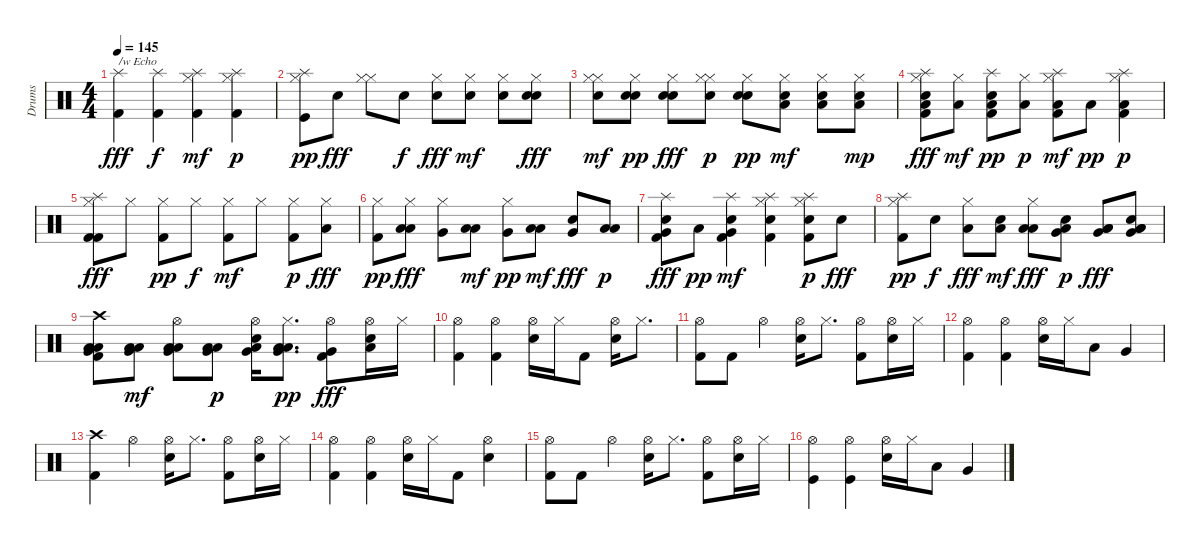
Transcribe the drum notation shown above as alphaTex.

\track ("Drums" "Drums") {instrument percussion}
\staff {score}
\articulation defaults
\ts (4 4)
\tempo 145
\clef neutral
\ks c
("Splash (hit)" "Kick (hit) 2").4{txt "/w Echo" dy fff} ("Splash (hit)" "Kick (hit) 2").4{dy f} ("Hi-Hat (closed)" "Splash (hit)" "Kick (hit) 2").4{dy mf} ("Hi-Hat (closed)" "Splash (hit)" "Kick (hit) 2").4{dy p} |
("Hi-Hat (closed)" "Splash (hit)" "Kick (hit)").8{dy pp} "Snare (hit) 2".8{dy fff} ("Hi-Hat (closed)" "Hi-Hat (closed)").8 "Snare (hit) 2".8{dy f} ("Hi-Hat (closed)" "Snare (hit) 2").8{dy fff} ("Hi-Hat (closed)" "Snare (hit) 2").8{dy mf} ("Hi-Hat (closed)" "Snare (hit) 2").8 ("Hi-Hat (closed)" "Snare (hit) 2" "Snare (hit) 2").8{dy fff} |
("Hi-Hat (closed)" "Hi-Hat (closed)" "Snare (hit) 2").8{dy mf} ("Hi-Hat (closed)" "Snare (hit) 2" "Snare (hit) 2").8{dy pp} ("Hi-Hat (closed)" "Snare (hit) 2" "Snare (hit) 2").8{dy fff} ("Hi-Hat (closed)" "Hi-Hat (closed)" "Snare (hit) 2").8{dy p} ("Hi-Hat (closed)" "Snare (hit) 2" "Snare (hit) 2").8{dy pp} ("Hi-Hat (closed)" "Low Tom (hit)" "Snare (hit) 2").8{dy mf} ("Hi-Hat (closed)" "Low Tom (hit)" "Snare (hit) 2").8 ("Hi-Hat (closed)" "Low Tom (hit)" "Snare (hit) 2").8{dy mp} |
("Hi-Hat (closed)" "Splash (hit)" "Low Tom (hit)" "Snare (hit) 2" "Kick (hit) 2").8{dy fff} ("Hi-Hat (closed)" "Low Tom (hit)").8{dy mf} ("Splash (hit)" "Low Tom (hit)" "Snare (hit) 2" "Kick (hit) 2").8{dy pp} ("Hi-Hat (closed)" "Low Tom (hit)").8{dy p} ("Hi-Hat (closed)" "Splash (hit)" "Low Tom (hit)" "Kick (hit) 2").8{dy mf} "Low Tom (hit)".8{dy pp} ("Hi-Hat (closed)" "Splash (hit)" "Low Tom (hit)" "Kick (hit) 2").4{dy p} |
("Hi-Hat (closed)" "Splash (hit)" "Kick (hit) 2" "Kick (hit) 2").8{dy fff} "Hi-Hat (closed)".8 ("Hi-Hat (closed)" "Kick (hit) 2").8{dy pp} "Hi-Hat (closed)".8{dy f} ("Hi-Hat (closed)" "Kick (hit) 2").8{dy mf} "Hi-Hat (closed)".8 ("Hi-Hat (closed)" "Kick (hit) 2").8{dy p} ("Hi-Hat (closed)" "Low Tom (hit)").8{dy fff} |
("Hi-Hat (closed)" "Kick (hit) 2").8{dy pp} ("Hi-Hat (closed)" "Low Tom (hit)" "Low Tom (hit)").8{dy fff} ("Hi-Hat (closed)" "Very Low Tom (hit)").8 ("Low Tom (hit)" "Low Tom (hit)").8{dy mf} ("Hi-Hat (closed)" "Very Low Tom (hit)").8{dy pp} ("Low Tom (hit)" "Low Tom (hit)").8{dy mf} ("Very Low Tom (hit)" "Snare (hit) 2").8{dy fff} ("Low Tom (hit)" "Low Tom (hit)").8{dy p} |
("Splash (hit)" "Very Low Tom (hit)" "Snare (hit) 2" "Kick (hit) 2").8{dy fff} "Low Tom (hit)".8{dy pp} ("Splash (hit)" "Very Low Tom (hit)" "Snare (hit) 2" "Kick (hit) 2").4{dy mf} ("Hi-Hat (closed)" "Splash (hit)" "Snare (hit) 2" "Kick (hit) 2").4 ("Hi-Hat (closed)" "Splash (hit)" "Snare (hit) 2" "Kick (hit) 2").8{dy p} "Snare (hit) 2".8{dy fff} |
("Hi-Hat (closed)" "Splash (hit)" "Kick (hit) 2").8{dy pp} "Snare (hit) 2".8{dy f} ("Hi-Hat (closed)" "Low Tom (hit)").8{dy fff} ("Low Tom (hit)" "Snare (hit) 2").8{dy mf} ("Hi-Hat (closed)" "Low Tom (hit)" "Low Tom (hit)").8{dy fff} ("Low Tom (hit)" "Very Low Tom (hit)" "Snare (hit) 2").8{dy p} ("Low Tom (hit)" "Low Tom (hit)" "Very Low Tom (hit)").8{dy fff} ("Low Tom (hit)" "Very Low Tom (hit)" "Snare (hit) 2" "Low Floor Tom (hit)").8 |
("Crash high (hit)" "Low Tom (hit)" "Low Tom (hit)" "Very Low Tom (hit)" "Kick (hit) 2").8 ("Low Floor Tom (hit)" "Low Tom (hit)" "Very Low Tom (hit)").8{dy mf} ("Hi-Hat (open)" "Low Tom (hit)" "Low Tom (hit)" "Very Low Tom (hit)").8 ("Low Floor Tom (hit)" "Low Tom (hit)" "Very Low Tom (hit)").8{dy p} ("Hi-Hat (open)" "Low Tom (hit)" "Snare (hit) 2" "Very Low Tom (hit)").16 ("Hi-Hat (closed)" "Low Floor Tom (hit)" "Low Tom (hit)" "Very Low Tom (hit)").8{d dy pp} ("Hi-Hat (open)" "Very Low Tom (hit)" "Kick (hit) 2").8{dy fff} ("Hi-Hat (open)" "Low Floor Tom (hit)" "Snare (hit) 2").16 "Hi-Hat (closed)".16 |
("Hi-Hat (open)" "Kick (hit) 2").4 ("Hi-Hat (open)" "Kick (hit) 2").4 ("Hi-Hat (open)" "Snare (hit) 2").16 "Hi-Hat (closed)".16 "Kick (hit) 2".8 ("Hi-Hat (open)" "Snare (hit) 2").16 "Hi-Hat (closed)".8{d} |
("Hi-Hat (open)" "Kick (hit) 2").8 "Kick (hit) 2".8 "Hi-Hat (open)".4 ("Hi-Hat (open)" "Snare (hit) 2").16 "Hi-Hat (closed)".8{d} ("Hi-Hat (open)" "Kick (hit) 2").8 ("Hi-Hat (open)" "Snare (hit) 2").16 "Hi-Hat (closed)".16 |
("Hi-Hat (open)" "Kick (hit) 2").4 ("Hi-Hat (open)" "Kick (hit) 2").4 ("Hi-Hat (open)" "Snare (hit) 2").16 "Hi-Hat (closed)".16 "Low Tom (hit)".8 "Very Low Tom (hit)".4 |
("Crash high (hit)" "Kick (hit) 2").4 "Hi-Hat (open)".4 ("Hi-Hat (open)" "Snare (hit) 2").16 "Hi-Hat (closed)".8{d} ("Hi-Hat (open)" "Kick (hit) 2").8 ("Hi-Hat (open)" "Snare (hit) 2").16 "Hi-Hat (closed)".16 |
("Hi-Hat (open)" "Kick (hit) 2").4 ("Hi-Hat (open)" "Kick (hit) 2").4 ("Hi-Hat (open)" "Snare (hit) 2").16 "Hi-Hat (closed)".16 "Kick (hit) 2".8 ("Hi-Hat (open)" "Snare (hit) 2").4 |
("Hi-Hat (open)" "Kick (hit) 2").8 "Kick (hit) 2".8 "Hi-Hat (open)".4 ("Hi-Hat (open)" "Snare (hit) 2").16 "Hi-Hat (closed)".8{d} ("Hi-Hat (open)" "Kick (hit) 2").8 ("Hi-Hat (open)" "Snare (hit) 2").16 "Hi-Hat (closed)".16 |
("Hi-Hat (open)" "Kick (hit)").4 ("Hi-Hat (open)" "Kick (hit)").4 ("Hi-Hat (open)" "Snare (hit) 2").16 "Hi-Hat (closed)".16 "Low Tom (hit)".8 "Very Low Tom (hit)".4
